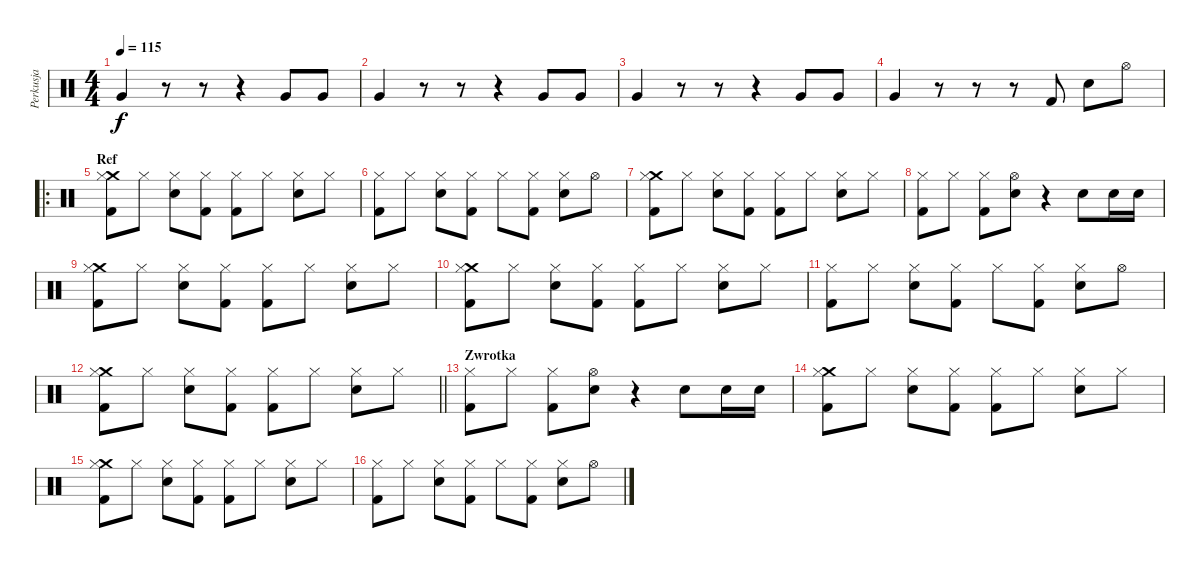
\track ("Perkusja" "Perkusja") {instrument percussion}
\staff {score}
\articulation defaults
\ts (4 4)
\tempo 115
\clef neutral
\ks c "Very Low Tom (hit)".4{dy f}
r.8 r.8 r.4 "Very Low Tom (hit)".8 "Very Low Tom (hit)".8 |
"Very Low Tom (hit)".4 r.8 r.8 r.4 "Very Low Tom (hit)".8 "Very Low Tom (hit)".8 |
"Very Low Tom (hit)".4 r.8 r.8 r.4 "Very Low Tom (hit)".8 "Very Low Tom (hit)".8 |
"Very Low Tom (hit)".4 r.8 r.8 r.8 "Kick (hit) 2".8 "Electric Snare (hit)".8 "Hi-Hat (open)".8 |
\ro
\section ("" "Ref")
("Crash medium (hit)" "Hi-Hat (closed)" "Kick (hit) 2").8 "Hi-Hat (closed)".8 ("Hi-Hat (closed)" "Electric Snare (hit)").8 ("Hi-Hat (closed)" "Kick (hit) 2").8 ("Hi-Hat (closed)" "Kick (hit) 2").8 "Hi-Hat (closed)".8 ("Hi-Hat (closed)" "Electric Snare (hit)").8 "Hi-Hat (closed)".8 |
("Hi-Hat (closed)" "Kick (hit) 2").8 "Hi-Hat (closed)".8 ("Hi-Hat (closed)" "Electric Snare (hit)").8 ("Hi-Hat (closed)" "Kick (hit) 2").8 "Hi-Hat (closed)".8 ("Hi-Hat (closed)" "Kick (hit) 2").8 ("Hi-Hat (closed)" "Electric Snare (hit)").8 "Hi-Hat (open)".8 |
("Crash medium (hit)" "Hi-Hat (closed)" "Kick (hit) 2").8 "Hi-Hat (closed)".8 ("Hi-Hat (closed)" "Electric Snare (hit)").8 ("Hi-Hat (closed)" "Kick (hit) 2").8 ("Hi-Hat (closed)" "Kick (hit) 2").8 "Hi-Hat (closed)".8 ("Hi-Hat (closed)" "Electric Snare (hit)").8 "Hi-Hat (closed)".8 |
("Hi-Hat (closed)" "Kick (hit) 2").8 "Hi-Hat (closed)".8 ("Hi-Hat (closed)" "Kick (hit) 2").8 ("Hi-Hat (open)" "Electric Snare (hit)").8 r.4 "Electric Snare (hit)".8 "Electric Snare (hit)".16 "Electric Snare (hit)".16 |
("Crash medium (hit)" "Hi-Hat (closed)" "Kick (hit) 2").8 "Hi-Hat (closed)".8 ("Hi-Hat (closed)" "Electric Snare (hit)").8 ("Hi-Hat (closed)" "Kick (hit) 2").8 ("Hi-Hat (closed)" "Kick (hit) 2").8 "Hi-Hat (closed)".8 ("Hi-Hat (closed)" "Electric Snare (hit)").8 "Hi-Hat (closed)".8 |
("Crash medium (hit)" "Hi-Hat (closed)" "Kick (hit) 2").8 "Hi-Hat (closed)".8 ("Hi-Hat (closed)" "Electric Snare (hit)").8 ("Hi-Hat (closed)" "Kick (hit) 2").8 ("Hi-Hat (closed)" "Kick (hit) 2").8 "Hi-Hat (closed)".8 ("Hi-Hat (closed)" "Electric Snare (hit)").8 "Hi-Hat (closed)".8 |
("Hi-Hat (closed)" "Kick (hit) 2").8 "Hi-Hat (closed)".8 ("Hi-Hat (closed)" "Electric Snare (hit)").8 ("Hi-Hat (closed)" "Kick (hit) 2").8 "Hi-Hat (closed)".8 ("Hi-Hat (closed)" "Kick (hit) 2").8 ("Hi-Hat (closed)" "Electric Snare (hit)").8 "Hi-Hat (open)".8 |
\barLineRight lightlight
("Crash medium (hit)" "Hi-Hat (closed)" "Kick (hit) 2").8 "Hi-Hat (closed)".8 ("Hi-Hat (closed)" "Electric Snare (hit)").8 ("Hi-Hat (closed)" "Kick (hit) 2").8 ("Hi-Hat (closed)" "Kick (hit) 2").8 "Hi-Hat (closed)".8 ("Hi-Hat (closed)" "Electric Snare (hit)").8 "Hi-Hat (closed)".8 |
\section ("" "Zwrotka")
("Hi-Hat (closed)" "Kick (hit) 2").8 "Hi-Hat (closed)".8 ("Hi-Hat (closed)" "Kick (hit) 2").8 ("Hi-Hat (open)" "Electric Snare (hit)").8 r.4 "Electric Snare (hit)".8 "Electric Snare (hit)".16 "Electric Snare (hit)".16 |
("Crash medium (hit)" "Hi-Hat (closed)" "Kick (hit) 2").8 "Hi-Hat (closed)".8 ("Hi-Hat (closed)" "Electric Snare (hit)").8 ("Hi-Hat (closed)" "Kick (hit) 2").8 ("Hi-Hat (closed)" "Kick (hit) 2").8 "Hi-Hat (closed)".8 ("Hi-Hat (closed)" "Electric Snare (hit)").8 "Hi-Hat (closed)".8 |
("Crash medium (hit)" "Hi-Hat (closed)" "Kick (hit) 2").8 "Hi-Hat (closed)".8 ("Hi-Hat (closed)" "Electric Snare (hit)").8 ("Hi-Hat (closed)" "Kick (hit) 2").8 ("Hi-Hat (closed)" "Kick (hit) 2").8 "Hi-Hat (closed)".8 ("Hi-Hat (closed)" "Electric Snare (hit)").8 "Hi-Hat (closed)".8 |
("Hi-Hat (closed)" "Kick (hit) 2").8 "Hi-Hat (closed)".8 ("Hi-Hat (closed)" "Electric Snare (hit)").8 ("Hi-Hat (closed)" "Kick (hit) 2").8 "Hi-Hat (closed)".8 ("Hi-Hat (closed)" "Kick (hit) 2").8 ("Hi-Hat (closed)" "Electric Snare (hit)").8 "Hi-Hat (open)".8
